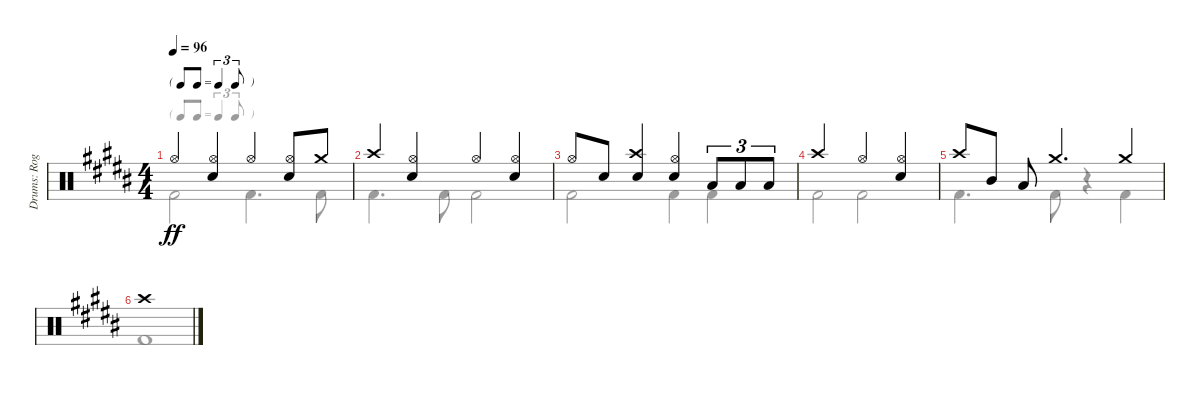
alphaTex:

\track ("Drums: Roger" "Drums: Rog") {instrument percussion}
\staff {score}
\articulation defaults
\voice
\ts (4 4)
\tf triplet8th
\tempo 96
\clef neutral
\ks b "Hi-Hat (open)".4{dy ff}
("Hi-Hat (open)" "Snare (hit) 2").4 "Hi-Hat (open)".4 ("Hi-Hat (open)" "Snare (hit) 2").8 "Crash medium (hit)".8 |
"Crash high (hit)".4 ("Hi-Hat (open)" "Snare (hit) 2").4 "Hi-Hat (open)".4 ("Hi-Hat (open)" "Snare (hit) 2").4 |
"Hi-Hat (open)".8 "Snare (hit) 2".8 ("Crash high (hit)" "Snare (hit) 2").4 ("Hi-Hat (open)" "Snare (hit) 2").4 "Low Tom (hit)".8{tu (3 2)} "Low Tom (hit)".8{tu (3 2)} "Low Tom (hit)".8{tu (3 2)} |
"Crash high (hit)".2 "Hi-Hat (open)".4 ("Hi-Hat (open)" "Snare (hit) 2").4 |
"Crash high (hit)".8 "Mid Tom (hit)".8 "Low Tom (hit)".8 "Crash medium (hit)".4{d} "Crash medium (hit)".4 |
"Crash high (hit)".1
\voice
\clef neutral
\ottava regular
\simile none
\ks b "Kick (hit) 2".2{dy ff} "Kick (hit) 2".4{d} "Kick (hit) 2".8
|
"Kick (hit) 2".4{d} "Kick (hit) 2".8 "Kick (hit) 2".2 |
"Kick (hit) 2".2 "Kick (hit) 2".4 "Kick (hit) 2".4 |
"Kick (hit) 2".2 "Kick (hit) 2".2 |
"Kick (hit) 2".4{d} "Kick (hit) 2".8 r.4 "Kick (hit) 2".4 |
"Kick (hit) 2".1
